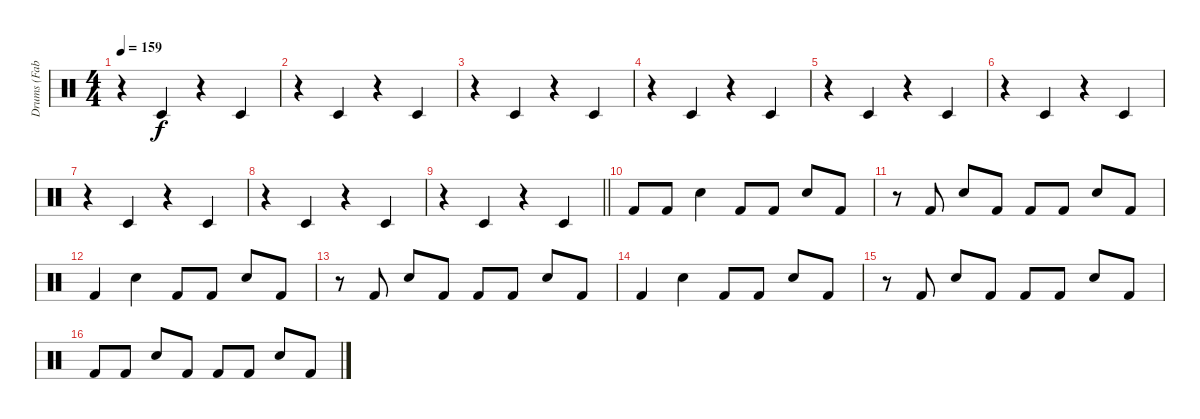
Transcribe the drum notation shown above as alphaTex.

\track ("Drums (Fabio)" "Drums (Fab") {instrument percussion}
\staff {score}
\articulation defaults
\ts (4 4)
\tempo 159
\clef neutral
\ks c
r.4{dy f} "Timbale low (hit)".4 r.4 "Timbale low (hit)".4 |
r.4 "Timbale low (hit)".4 r.4 "Timbale low (hit)".4 |
r.4 "Timbale low (hit)".4 r.4 "Timbale low (hit)".4 |
r.4 "Timbale low (hit)".4 r.4 "Timbale low (hit)".4 |
r.4 "Timbale low (hit)".4 r.4 "Timbale low (hit)".4 |
r.4 "Timbale low (hit)".4 r.4 "Timbale low (hit)".4 |
r.4 "Timbale low (hit)".4 r.4 "Timbale low (hit)".4 |
r.4 "Timbale low (hit)".4 r.4 "Timbale low (hit)".4 |
\barLineRight lightlight
r.4 "Timbale low (hit)".4 r.4 "Timbale low (hit)".4 |
"Kick (hit) 2".8 "Kick (hit) 2".8 "Snare (hit) 2".4 "Kick (hit) 2".8 "Kick (hit) 2".8 "Snare (hit) 2".8 "Kick (hit) 2".8 |
r.8 "Kick (hit) 2".8 "Snare (hit) 2".8 "Kick (hit) 2".8 "Kick (hit) 2".8 "Kick (hit) 2".8 "Snare (hit) 2".8 "Kick (hit) 2".8 |
"Kick (hit) 2".4 "Snare (hit) 2".4 "Kick (hit) 2".8 "Kick (hit) 2".8 "Snare (hit) 2".8 "Kick (hit) 2".8 |
r.8 "Kick (hit) 2".8 "Snare (hit) 2".8 "Kick (hit) 2".8 "Kick (hit) 2".8 "Kick (hit) 2".8 "Snare (hit) 2".8 "Kick (hit) 2".8 |
"Kick (hit) 2".4 "Snare (hit) 2".4 "Kick (hit) 2".8 "Kick (hit) 2".8 "Snare (hit) 2".8 "Kick (hit) 2".8 |
r.8 "Kick (hit) 2".8 "Snare (hit) 2".8 "Kick (hit) 2".8 "Kick (hit) 2".8 "Kick (hit) 2".8 "Snare (hit) 2".8 "Kick (hit) 2".8 |
"Kick (hit) 2".8 "Kick (hit) 2".8 "Snare (hit) 2".8 "Kick (hit) 2".8 "Kick (hit) 2".8 "Kick (hit) 2".8 "Snare (hit) 2".8 "Kick (hit) 2".8
